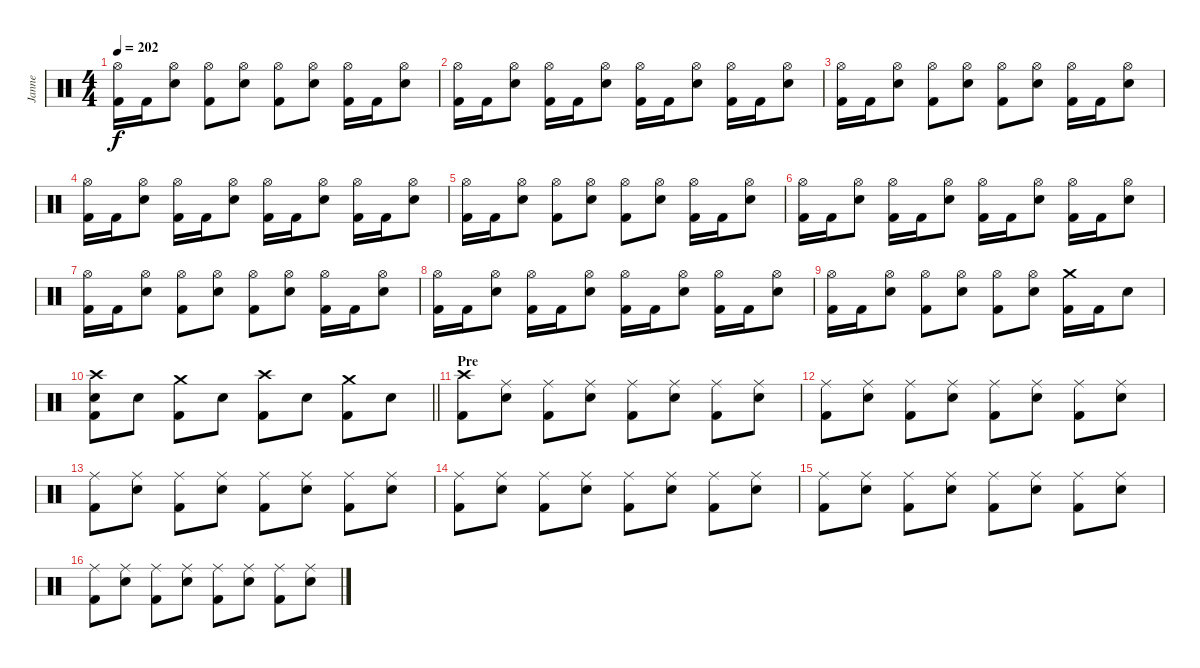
\track ("Janne" "Janne") {instrument percussion}
\staff {score}
\articulation defaults
\ts (4 4)
\tempo 202
\clef neutral
\ks c
("Hi-Hat (open)" "Kick (hit) 2").16{dy f} "Kick (hit) 2".16 ("Hi-Hat (open)" "Electric Snare (hit)").8 ("Hi-Hat (open)" "Kick (hit) 2").8 ("Hi-Hat (open)" "Electric Snare (hit)").8 ("Hi-Hat (open)" "Kick (hit) 2").8 ("Hi-Hat (open)" "Electric Snare (hit)").8 ("Hi-Hat (open)" "Kick (hit) 2").16 "Kick (hit) 2".16 ("Hi-Hat (open)" "Electric Snare (hit)").8 |
("Hi-Hat (open)" "Kick (hit) 2").16 "Kick (hit) 2".16 ("Hi-Hat (open)" "Electric Snare (hit)").8 ("Hi-Hat (open)" "Kick (hit) 2").16 "Kick (hit) 2".16 ("Hi-Hat (open)" "Electric Snare (hit)").8 ("Hi-Hat (open)" "Kick (hit) 2").16 "Kick (hit) 2".16 ("Hi-Hat (open)" "Electric Snare (hit)").8 ("Hi-Hat (open)" "Kick (hit) 2").16 "Kick (hit) 2".16 ("Hi-Hat (open)" "Electric Snare (hit)").8 |
("Hi-Hat (open)" "Kick (hit) 2").16 "Kick (hit) 2".16 ("Hi-Hat (open)" "Electric Snare (hit)").8 ("Hi-Hat (open)" "Kick (hit) 2").8 ("Hi-Hat (open)" "Electric Snare (hit)").8 ("Hi-Hat (open)" "Kick (hit) 2").8 ("Hi-Hat (open)" "Electric Snare (hit)").8 ("Hi-Hat (open)" "Kick (hit) 2").16 "Kick (hit) 2".16 ("Hi-Hat (open)" "Electric Snare (hit)").8 |
("Hi-Hat (open)" "Kick (hit) 2").16 "Kick (hit) 2".16 ("Hi-Hat (open)" "Electric Snare (hit)").8 ("Hi-Hat (open)" "Kick (hit) 2").16 "Kick (hit) 2".16 ("Hi-Hat (open)" "Electric Snare (hit)").8 ("Hi-Hat (open)" "Kick (hit) 2").16 "Kick (hit) 2".16 ("Hi-Hat (open)" "Electric Snare (hit)").8 ("Hi-Hat (open)" "Kick (hit) 2").16 "Kick (hit) 2".16 ("Hi-Hat (open)" "Electric Snare (hit)").8 |
("Hi-Hat (open)" "Kick (hit) 2").16 "Kick (hit) 2".16 ("Hi-Hat (open)" "Electric Snare (hit)").8 ("Hi-Hat (open)" "Kick (hit) 2").8 ("Hi-Hat (open)" "Electric Snare (hit)").8 ("Hi-Hat (open)" "Kick (hit) 2").8 ("Hi-Hat (open)" "Electric Snare (hit)").8 ("Hi-Hat (open)" "Kick (hit) 2").16 "Kick (hit) 2".16 ("Hi-Hat (open)" "Electric Snare (hit)").8 |
("Hi-Hat (open)" "Kick (hit) 2").16 "Kick (hit) 2".16 ("Hi-Hat (open)" "Electric Snare (hit)").8 ("Hi-Hat (open)" "Kick (hit) 2").16 "Kick (hit) 2".16 ("Hi-Hat (open)" "Electric Snare (hit)").8 ("Hi-Hat (open)" "Kick (hit) 2").16 "Kick (hit) 2".16 ("Hi-Hat (open)" "Electric Snare (hit)").8 ("Hi-Hat (open)" "Kick (hit) 2").16 "Kick (hit) 2".16 ("Hi-Hat (open)" "Electric Snare (hit)").8 |
("Hi-Hat (open)" "Kick (hit) 2").16 "Kick (hit) 2".16 ("Hi-Hat (open)" "Electric Snare (hit)").8 ("Hi-Hat (open)" "Kick (hit) 2").8 ("Hi-Hat (open)" "Electric Snare (hit)").8 ("Hi-Hat (open)" "Kick (hit) 2").8 ("Hi-Hat (open)" "Electric Snare (hit)").8 ("Hi-Hat (open)" "Kick (hit) 2").16 "Kick (hit) 2".16 ("Hi-Hat (open)" "Electric Snare (hit)").8 |
("Hi-Hat (open)" "Kick (hit) 2").16 "Kick (hit) 2".16 ("Hi-Hat (open)" "Electric Snare (hit)").8 ("Hi-Hat (open)" "Kick (hit) 2").16 "Kick (hit) 2".16 ("Hi-Hat (open)" "Electric Snare (hit)").8 ("Hi-Hat (open)" "Kick (hit) 2").16 "Kick (hit) 2".16 ("Hi-Hat (open)" "Electric Snare (hit)").8 ("Hi-Hat (open)" "Kick (hit) 2").16 "Kick (hit) 2".16 ("Hi-Hat (open)" "Electric Snare (hit)").8 |
("Hi-Hat (open)" "Kick (hit) 2").16 "Kick (hit) 2".16 ("Hi-Hat (open)" "Electric Snare (hit)").8 ("Hi-Hat (open)" "Kick (hit) 2").8 ("Hi-Hat (open)" "Electric Snare (hit)").8 ("Hi-Hat (open)" "Kick (hit) 2").8 ("Hi-Hat (open)" "Electric Snare (hit)").8 ("Crash medium (hit)" "Kick (hit) 2").16 "Kick (hit) 2".16 "Electric Snare (hit)".8 |
\barLineRight lightlight
("Crash high (hit)" "Electric Snare (hit)" "Kick (hit) 2").8 "Electric Snare (hit)".8 ("Crash medium (hit)" "Kick (hit) 2").8 "Electric Snare (hit)".8 ("Crash high (hit)" "Kick (hit) 2").8 "Electric Snare (hit)".8 ("Crash medium (hit)" "Kick (hit) 2").8 "Electric Snare (hit)".8 |
\section ("" "Pre")
("Crash high (hit)" "Kick (hit) 2").8 ("Ride (middle)" "Electric Snare (hit)").8 ("Ride (middle)" "Kick (hit) 2").8 ("Ride (middle)" "Electric Snare (hit)").8 ("Ride (middle)" "Kick (hit) 2").8 ("Ride (middle)" "Electric Snare (hit)").8 ("Ride (middle)" "Kick (hit) 2").8 ("Ride (middle)" "Electric Snare (hit)").8 |
("Ride (middle)" "Kick (hit) 2").8 ("Ride (middle)" "Electric Snare (hit)").8 ("Ride (middle)" "Kick (hit) 2").8 ("Ride (middle)" "Electric Snare (hit)").8 ("Ride (middle)" "Kick (hit) 2").8 ("Ride (middle)" "Electric Snare (hit)").8 ("Ride (middle)" "Kick (hit) 2").8 ("Ride (middle)" "Electric Snare (hit)").8 |
("Ride (middle)" "Kick (hit) 2").8 ("Ride (middle)" "Electric Snare (hit)").8 ("Ride (middle)" "Kick (hit) 2").8 ("Ride (middle)" "Electric Snare (hit)").8 ("Ride (middle)" "Kick (hit) 2").8 ("Ride (middle)" "Electric Snare (hit)").8 ("Ride (middle)" "Kick (hit) 2").8 ("Ride (middle)" "Electric Snare (hit)").8 |
("Ride (middle)" "Kick (hit) 2").8 ("Ride (middle)" "Electric Snare (hit)").8 ("Ride (middle)" "Kick (hit) 2").8 ("Ride (middle)" "Electric Snare (hit)").8 ("Ride (middle)" "Kick (hit) 2").8 ("Ride (middle)" "Electric Snare (hit)").8 ("Ride (middle)" "Kick (hit) 2").8 ("Ride (middle)" "Electric Snare (hit)").8 |
("Ride (middle)" "Kick (hit) 2").8 ("Ride (middle)" "Electric Snare (hit)").8 ("Ride (middle)" "Kick (hit) 2").8 ("Ride (middle)" "Electric Snare (hit)").8 ("Ride (middle)" "Kick (hit) 2").8 ("Ride (middle)" "Electric Snare (hit)").8 ("Ride (middle)" "Kick (hit) 2").8 ("Ride (middle)" "Electric Snare (hit)").8 |
("Ride (middle)" "Kick (hit) 2").8 ("Ride (middle)" "Electric Snare (hit)").8 ("Ride (middle)" "Kick (hit) 2").8 ("Ride (middle)" "Electric Snare (hit)").8 ("Ride (middle)" "Kick (hit) 2").8 ("Ride (middle)" "Electric Snare (hit)").8 ("Ride (middle)" "Kick (hit) 2").8 ("Ride (middle)" "Electric Snare (hit)").8
